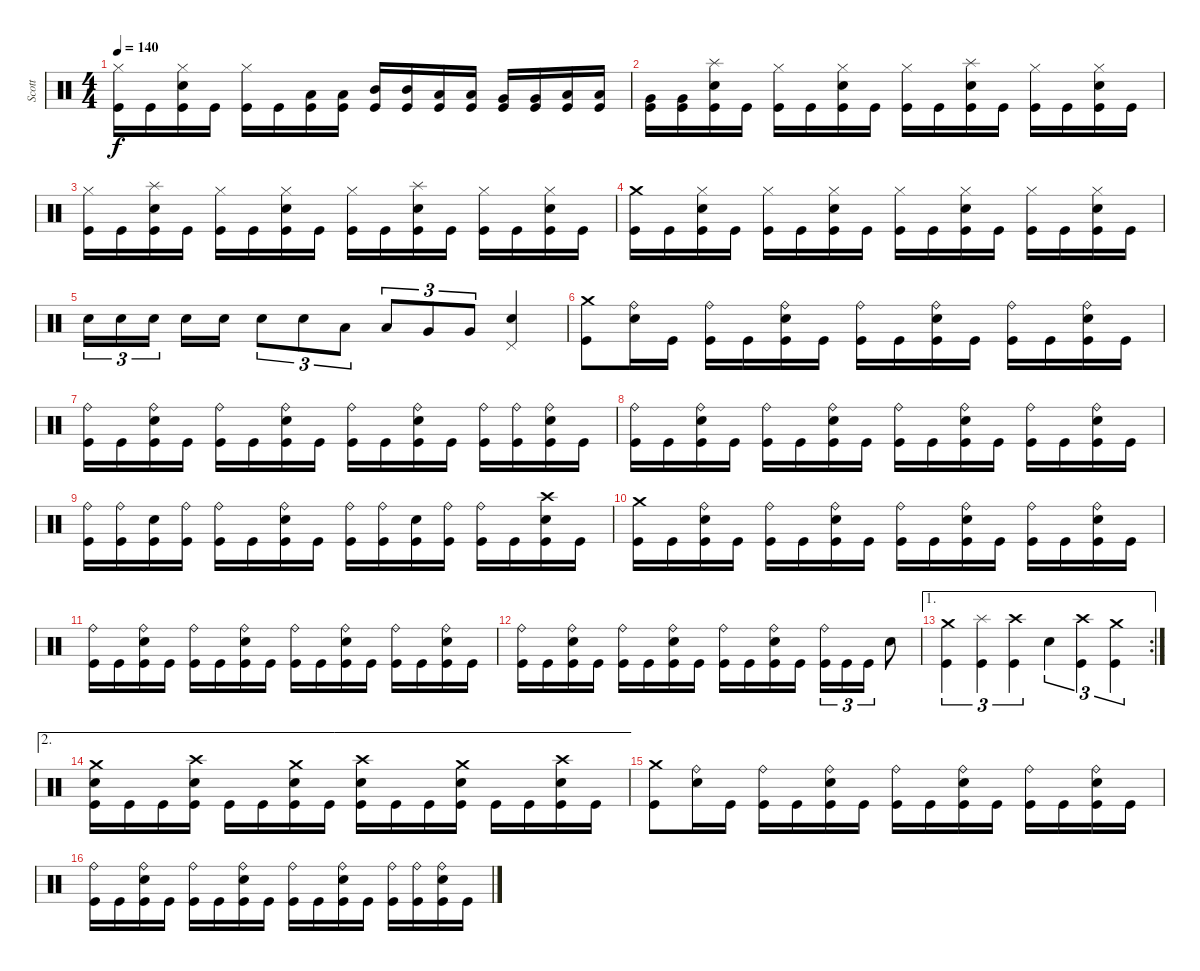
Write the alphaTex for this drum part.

\track ("Scott" "Scott") {instrument percussion}
\staff {score}
\articulation defaults
\ts (4 4)
\tempo 140
\clef neutral
\ks c
("Kick (hit)" "Hi-Hat (closed)").16{dy f} "Kick (hit)".16 ("Kick (hit)" "Snare (hit) 2" "Hi-Hat (closed)").16 "Kick (hit)".16 ("Kick (hit)" "Hi-Hat (closed)").16 "Kick (hit)".16 ("Kick (hit)" "Low Tom (hit)").16 ("Kick (hit)" "Low Tom (hit)").16 ("Kick (hit)" "Mid Tom (hit)").16 ("Kick (hit)" "Mid Tom (hit)").16 ("Kick (hit)" "Low Tom (hit)").16 ("Kick (hit)" "Low Tom (hit)").16 ("Kick (hit)" "Very Low Tom (hit)").16 ("Kick (hit)" "Very Low Tom (hit)").16 ("Kick (hit)" "Low Floor Tom (hit)").16 ("Kick (hit)" "Low Floor Tom (hit)").16 |
("Kick (hit)" "Very Low Tom (hit)").16 ("Kick (hit)" "Very Low Tom (hit)").16 ("Kick (hit)" "Snare (hit) 2" "Splash (hit)").16 "Kick (hit)".16 ("Kick (hit)" "Hi-Hat (closed)").16 "Kick (hit)".16 ("Kick (hit)" "Snare (hit) 2" "Hi-Hat (closed)").16 "Kick (hit)".16 ("Kick (hit)" "Hi-Hat (closed)").16 "Kick (hit)".16 ("Kick (hit)" "Snare (hit) 2" "Splash (hit)").16 "Kick (hit)".16 ("Kick (hit)" "Hi-Hat (closed)").16 "Kick (hit)".16 ("Kick (hit)" "Snare (hit) 2" "Hi-Hat (closed)").16 "Kick (hit)".16 |
("Kick (hit)" "Hi-Hat (closed)").16 "Kick (hit)".16 ("Kick (hit)" "Snare (hit) 2" "Splash (hit)").16 "Kick (hit)".16 ("Kick (hit)" "Hi-Hat (closed)").16 "Kick (hit)".16 ("Kick (hit)" "Snare (hit) 2" "Hi-Hat (closed)").16 "Kick (hit)".16 ("Kick (hit)" "Hi-Hat (closed)").16 "Kick (hit)".16 ("Kick (hit)" "Snare (hit) 2" "Splash (hit)").16 "Kick (hit)".16 ("Kick (hit)" "Hi-Hat (closed)").16 "Kick (hit)".16 ("Kick (hit)" "Snare (hit) 2" "Hi-Hat (closed)").16 "Kick (hit)".16 |
("Kick (hit)" "Crash medium (hit)").16 "Kick (hit)".16 ("Kick (hit)" "Snare (hit) 2" "Hi-Hat (closed)").16 "Kick (hit)".16 ("Kick (hit)" "Hi-Hat (closed)").16 "Kick (hit)".16 ("Kick (hit)" "Snare (hit) 2" "Hi-Hat (closed)").16 "Kick (hit)".16 ("Kick (hit)" "Hi-Hat (closed)").16 "Kick (hit)".16 ("Kick (hit)" "Snare (hit) 2" "Hi-Hat (closed)").16 "Kick (hit)".16 ("Kick (hit)" "Hi-Hat (closed)").16 "Kick (hit)".16 ("Kick (hit)" "Snare (hit) 2" "Hi-Hat (closed)").16 "Kick (hit)".16 |
"Snare (hit) 2".16{tu (3 2)} "Snare (hit) 2".16{tu (3 2)} "Snare (hit) 2".16{tu (3 2)} "Snare (hit) 2".16 "Snare (hit) 2".16 "Snare (hit) 2".8{tu (3 2)} "Snare (hit) 2".8{tu (3 2)} "Low Tom (hit)".8{tu (3 2)} "Low Tom (hit)".8{tu (3 2)} "Very Low Tom (hit)".8{tu (3 2)} "Very Low Tom (hit)".8{tu (3 2)} ("Snare (hit) 2" "Pedal Hi-Hat (hit)").4 |
("Kick (hit)" "Crash medium (hit)").8 ("Snare (hit) 2" "Ride (bell)").16 "Kick (hit)".16 ("Kick (hit)" "Ride (bell)").16 "Kick (hit)".16 ("Kick (hit)" "Snare (hit) 2" "Ride (bell)").16 "Kick (hit)".16 ("Kick (hit)" "Ride (bell)").16 "Kick (hit)".16 ("Kick (hit)" "Snare (hit) 2" "Ride (bell)").16 "Kick (hit)".16 ("Kick (hit)" "Ride (bell)").16 "Kick (hit)".16 ("Kick (hit)" "Snare (hit) 2" "Ride (bell)").16 "Kick (hit)".16 |
("Kick (hit)" "Ride (bell)").16 "Kick (hit)".16 ("Kick (hit)" "Snare (hit) 2" "Ride (bell)").16 "Kick (hit)".16 ("Kick (hit)" "Ride (bell)").16 "Kick (hit)".16 ("Kick (hit)" "Snare (hit) 2" "Ride (bell)").16 "Kick (hit)".16 ("Kick (hit)" "Ride (bell)").16 "Kick (hit)".16 ("Kick (hit)" "Snare (hit) 2" "Ride (bell)").16 "Kick (hit)".16 ("Kick (hit)" "Ride (bell)").16 ("Kick (hit)" "Ride (bell)").16 ("Kick (hit)" "Snare (hit) 2" "Ride (bell)").16 "Kick (hit)".16 |
("Kick (hit)" "Ride (bell)").16 "Kick (hit)".16 ("Kick (hit)" "Snare (hit) 2" "Ride (bell)").16 "Kick (hit)".16 ("Kick (hit)" "Ride (bell)").16 "Kick (hit)".16 ("Kick (hit)" "Snare (hit) 2" "Ride (bell)").16 "Kick (hit)".16 ("Kick (hit)" "Ride (bell)").16 "Kick (hit)".16 ("Kick (hit)" "Snare (hit) 2" "Ride (bell)").16 "Kick (hit)".16 ("Kick (hit)" "Ride (bell)").16 "Kick (hit)".16 ("Kick (hit)" "Snare (hit) 2" "Ride (bell)").16 "Kick (hit)".16 |
("Kick (hit)" "Ride (bell)").16 ("Kick (hit)" "Ride (bell)").16 ("Kick (hit)" "Snare (hit) 2").16 ("Kick (hit)" "Ride (bell)").16 ("Kick (hit)" "Ride (bell)").16 "Kick (hit)".16 ("Kick (hit)" "Snare (hit) 2" "Ride (bell)").16 "Kick (hit)".16 ("Kick (hit)" "Ride (bell)").16 ("Kick (hit)" "Ride (bell)").16 ("Kick (hit)" "Snare (hit) 2").16 ("Kick (hit)" "Ride (bell)").16 ("Kick (hit)" "Ride (bell)").16 "Kick (hit)".16 ("Kick (hit)" "Snare (hit) 2" "Crash high (hit)").16 "Kick (hit)".16 |
("Kick (hit)" "Crash medium (hit)").16 "Kick (hit)".16 ("Kick (hit)" "Snare (hit) 2" "Ride (bell)").16 "Kick (hit)".16 ("Kick (hit)" "Ride (bell)").16 "Kick (hit)".16 ("Kick (hit)" "Snare (hit) 2" "Ride (bell)").16 "Kick (hit)".16 ("Kick (hit)" "Ride (bell)").16 "Kick (hit)".16 ("Kick (hit)" "Snare (hit) 2" "Ride (bell)").16 "Kick (hit)".16 ("Kick (hit)" "Ride (bell)").16 "Kick (hit)".16 ("Kick (hit)" "Snare (hit) 2" "Ride (bell)").16 "Kick (hit)".16 |
("Kick (hit)" "Ride (bell)").16 "Kick (hit)".16 ("Kick (hit)" "Snare (hit) 2" "Ride (bell)").16 "Kick (hit)".16 ("Kick (hit)" "Ride (bell)").16 "Kick (hit)".16 ("Kick (hit)" "Snare (hit) 2" "Ride (bell)").16 "Kick (hit)".16 ("Kick (hit)" "Ride (bell)").16 "Kick (hit)".16 ("Kick (hit)" "Snare (hit) 2" "Ride (bell)").16 "Kick (hit)".16 ("Kick (hit)" "Ride (bell)").16 "Kick (hit)".16 ("Kick (hit)" "Snare (hit) 2" "Ride (bell)").16 "Kick (hit)".16 |
("Kick (hit)" "Ride (bell)").16 "Kick (hit)".16 ("Kick (hit)" "Snare (hit) 2" "Ride (bell)").16 "Kick (hit)".16 ("Kick (hit)" "Ride (bell)").16 "Kick (hit)".16 ("Kick (hit)" "Snare (hit) 2" "Ride (bell)").16 "Kick (hit)".16 ("Kick (hit)" "Ride (bell)").16 "Kick (hit)".16 ("Kick (hit)" "Snare (hit) 2" "Ride (bell)").16 "Kick (hit)".16 ("Kick (hit)" "Ride (bell)").16{tu (3 2)} "Kick (hit)".16{tu (3 2)} "Kick (hit)".16{tu (3 2)} "Snare (hit) 2".8 |
\ae 1
\rc 2
("Kick (hit)" "Crash medium (hit)").4{tu (3 2)} ("Kick (hit)" "Splash (hit)").4{tu (3 2)} ("Kick (hit)" "Crash high (hit)").4{tu (3 2)} "Snare (hit) 2".4{tu (3 2)} ("Kick (hit)" "Crash high (hit)").4{tu (3 2)} ("Kick (hit)" "Crash medium (hit)").4{tu (3 2)} |
\ae 2
("Kick (hit)" "Snare (hit) 2" "Crash medium (hit)").16 "Kick (hit)".16 "Kick (hit)".16 ("Kick (hit)" "Snare (hit) 2" "Crash high (hit)").16 "Kick (hit)".16 "Kick (hit)".16 ("Kick (hit)" "Snare (hit) 2" "Crash medium (hit)").16 "Kick (hit)".16 ("Kick (hit)" "Snare (hit) 2" "Crash high (hit)").16 "Kick (hit)".16 "Kick (hit)".16 ("Kick (hit)" "Snare (hit) 2" "Crash medium (hit)").16 "Kick (hit)".16 "Kick (hit)".16 ("Kick (hit)" "Snare (hit) 2" "Crash high (hit)").16 "Kick (hit)".16 |
("Kick (hit)" "Crash medium (hit)").8 ("Snare (hit) 2" "Ride (bell)").16 "Kick (hit)".16 ("Kick (hit)" "Ride (bell)").16 "Kick (hit)".16 ("Kick (hit)" "Snare (hit) 2" "Ride (bell)").16 "Kick (hit)".16 ("Kick (hit)" "Ride (bell)").16 "Kick (hit)".16 ("Kick (hit)" "Snare (hit) 2" "Ride (bell)").16 "Kick (hit)".16 ("Kick (hit)" "Ride (bell)").16 "Kick (hit)".16 ("Kick (hit)" "Snare (hit) 2" "Ride (bell)").16 "Kick (hit)".16 |
("Kick (hit)" "Ride (bell)").16 "Kick (hit)".16 ("Kick (hit)" "Snare (hit) 2" "Ride (bell)").16 "Kick (hit)".16 ("Kick (hit)" "Ride (bell)").16 "Kick (hit)".16 ("Kick (hit)" "Snare (hit) 2" "Ride (bell)").16 "Kick (hit)".16 ("Kick (hit)" "Ride (bell)").16 "Kick (hit)".16 ("Kick (hit)" "Snare (hit) 2" "Ride (bell)").16 "Kick (hit)".16 ("Kick (hit)" "Ride (bell)").16 ("Kick (hit)" "Ride (bell)").16 ("Kick (hit)" "Snare (hit) 2" "Ride (bell)").16 "Kick (hit)".16
